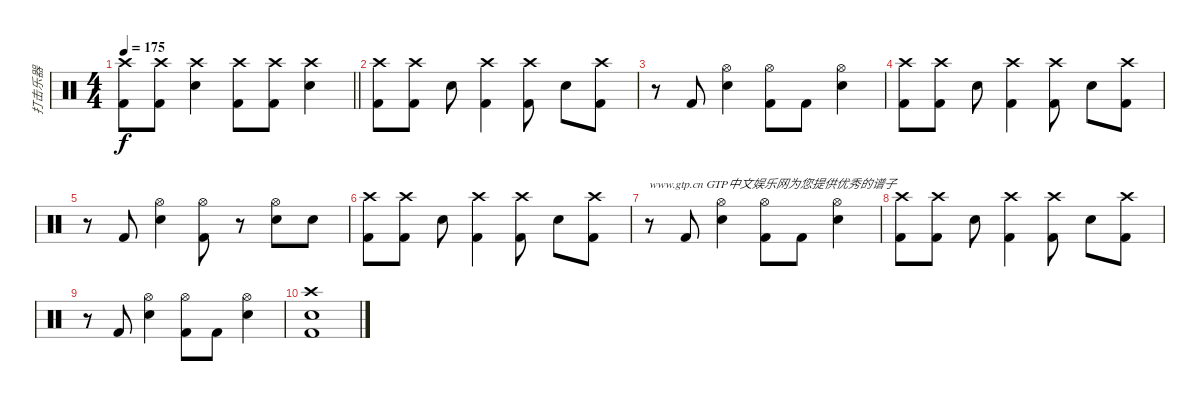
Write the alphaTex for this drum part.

\track ("打击乐器" "打击乐器") {instrument percussion}
\staff {score}
\articulation defaults
\ts (4 4)
\tempo 175
\clef neutral
\barLineRight lightlight
\ks c
("Crash high (hit)" "Kick (hit) 2").8{dy f} ("Crash high (hit)" "Kick (hit) 2").8 ("Crash high (hit)" "Electric Snare (hit)").4 ("Crash high (hit)" "Kick (hit) 2").8 ("Crash high (hit)" "Kick (hit) 2").8 ("Crash high (hit)" "Electric Snare (hit)").4 |
("Crash high (hit)" "Kick (hit) 2").8 ("Crash high (hit)" "Kick (hit) 2").8 "Electric Snare (hit)".8 ("Crash high (hit)" "Kick (hit) 2").4 ("Crash high (hit)" "Kick (hit) 2").8 "Electric Snare (hit)".8 ("Crash high (hit)" "Kick (hit) 2").8 |
r.8 "Kick (hit) 2".8 ("Hi-Hat (open)" "Electric Snare (hit)").4 ("Hi-Hat (open)" "Kick (hit) 2").8 "Kick (hit) 2".8 ("Hi-Hat (open)" "Electric Snare (hit)").4 |
("Crash high (hit)" "Kick (hit) 2").8 ("Crash high (hit)" "Kick (hit) 2").8 "Electric Snare (hit)".8 ("Crash high (hit)" "Kick (hit) 2").4 ("Crash high (hit)" "Kick (hit) 2").8 "Electric Snare (hit)".8 ("Crash high (hit)" "Kick (hit) 2").8 |
r.8 "Kick (hit) 2".8 ("Hi-Hat (open)" "Electric Snare (hit)").4 ("Hi-Hat (open)" "Kick (hit) 2").8 r.8 ("Hi-Hat (open)" "Electric Snare (hit)").8 "Electric Snare (hit)".8 |
("Crash high (hit)" "Kick (hit) 2").8 ("Crash high (hit)" "Kick (hit) 2").8 "Electric Snare (hit)".8 ("Crash high (hit)" "Kick (hit) 2").4 ("Crash high (hit)" "Kick (hit) 2").8 "Electric Snare (hit)".8 ("Crash high (hit)" "Kick (hit) 2").8 |
r.8{txt "www.gtp.cn GTP中文娱乐网为您提供优秀的谱子"} "Kick (hit) 2".8 ("Hi-Hat (open)" "Electric Snare (hit)").4 ("Hi-Hat (open)" "Kick (hit) 2").8 "Kick (hit) 2".8 ("Hi-Hat (open)" "Electric Snare (hit)").4 |
("Crash high (hit)" "Kick (hit) 2").8 ("Crash high (hit)" "Kick (hit) 2").8 "Electric Snare (hit)".8 ("Crash high (hit)" "Kick (hit) 2").4 ("Crash high (hit)" "Kick (hit) 2").8 "Electric Snare (hit)".8 ("Crash high (hit)" "Kick (hit) 2").8 |
r.8 "Kick (hit) 2".8 ("Hi-Hat (open)" "Electric Snare (hit)").4 ("Hi-Hat (open)" "Kick (hit) 2").8 "Kick (hit) 2".8 ("Hi-Hat (open)" "Electric Snare (hit)").4 |
("Crash high (hit)" "Electric Snare (hit)" "Kick (hit) 2").1
